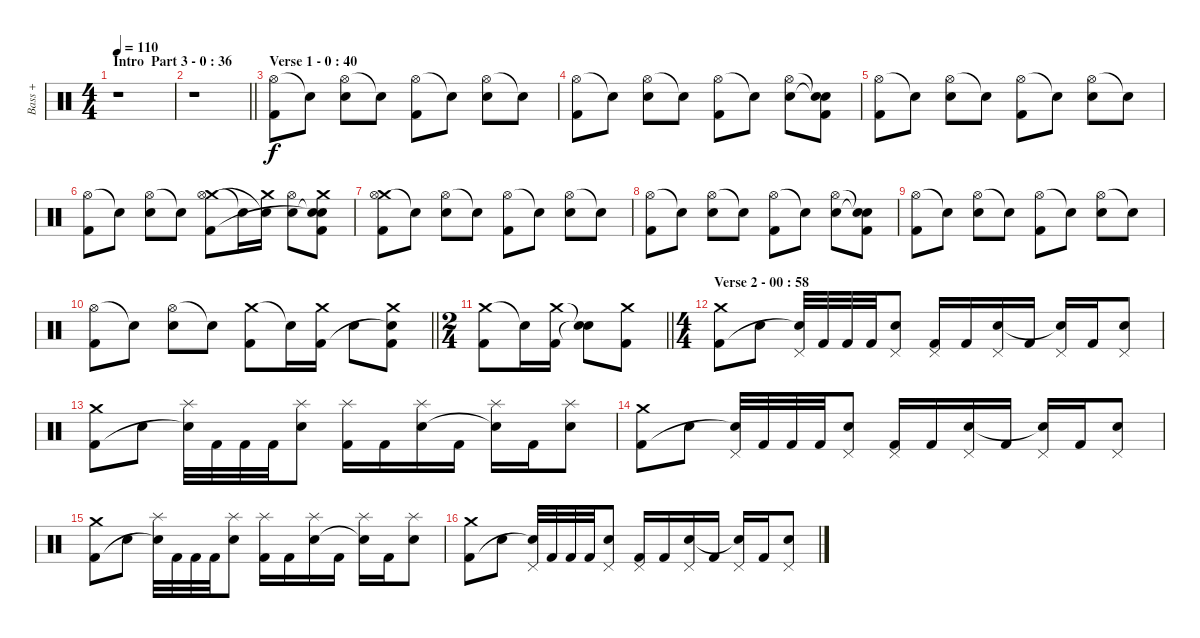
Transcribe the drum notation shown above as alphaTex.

\track ("  Bass +" "  Bass +") {instrument percussion}
\staff {score}
\articulation defaults
\ts (4 4)
\section ("" "Intro  Part 3 - 0 : 36")
\tempo 110
\clef neutral
\ks c
r.1{dy f} |
\barLineRight lightlight
r.1 |
\section ("" "Verse 1 - 0 : 40")
("Hi-Hat (open)" "Kick (hit) 2").8 "Snare (hit)"{t}.8 ("Hi-Hat (open)" "Snare (hit) 2").8 "Snare (hit)"{t}.8 ("Hi-Hat (open)" "Kick (hit) 2").8 "Snare (hit)"{t}.8 ("Hi-Hat (open)" "Snare (hit) 2").8 "Snare (hit)"{t}.8 |
("Hi-Hat (open)" "Kick (hit) 2").8 "Snare (hit)"{t}.8 ("Hi-Hat (open)" "Snare (hit) 2").8 "Snare (hit)"{t}.8 ("Hi-Hat (open)" "Kick (hit) 2").8 "Snare (hit)"{t}.8 ("Hi-Hat (open)" "Snare (hit) 2").8 ("Snare (hit)"{t} "Snare (hit)"{t} "Kick (hit) 2").8 |
("Hi-Hat (open)" "Kick (hit) 2").8 "Snare (hit)"{t}.8 ("Hi-Hat (open)" "Snare (hit) 2").8 "Snare (hit)"{t}.8 ("Hi-Hat (open)" "Kick (hit) 2").8 "Snare (hit)"{t}.8 ("Hi-Hat (open)" "Snare (hit) 2").8 "Snare (hit)"{t}.8 |
("Hi-Hat (open)" "Kick (hit) 2").8 "Snare (hit)"{t}.8 ("Hi-Hat (open)" "Snare (hit) 2").8 "Snare (hit)"{t}.8 ("Crash medium (hit)" "Hi-Hat (open)" "Kick (hit) 2").8 "Snare (hit)"{t}.16 ("Crash medium (hit)" "Snare (hit)"{t}).16 ("Hi-Hat (open)" "Snare (hit) 2").8 ("Crash medium (hit)" "Snare (hit)"{t} "Snare (hit)"{t} "Kick (hit) 2").8 |
("Crash medium (hit)" "Hi-Hat (open)" "Kick (hit) 2").8 "Snare (hit)"{t}.8 ("Hi-Hat (open)" "Snare (hit) 2").8 "Snare (hit)"{t}.8 ("Hi-Hat (open)" "Kick (hit) 2").8 "Snare (hit)"{t}.8 ("Hi-Hat (open)" "Snare (hit) 2").8 "Snare (hit)"{t}.8 |
("Hi-Hat (open)" "Kick (hit) 2").8 "Snare (hit)"{t}.8 ("Hi-Hat (open)" "Snare (hit) 2").8 "Snare (hit)"{t}.8 ("Hi-Hat (open)" "Kick (hit) 2").8 "Snare (hit)"{t}.8 ("Hi-Hat (open)" "Snare (hit) 2").8 ("Snare (hit)"{t} "Snare (hit)"{t} "Kick (hit) 2").8 |
("Hi-Hat (open)" "Kick (hit) 2").8 "Snare (hit)"{t}.8 ("Hi-Hat (open)" "Snare (hit) 2").8 "Snare (hit)"{t}.8 ("Hi-Hat (open)" "Kick (hit) 2").8 "Snare (hit)"{t}.8 ("Hi-Hat (open)" "Snare (hit) 2").8 "Snare (hit)"{t}.8 |
\barLineRight lightlight
("Hi-Hat (open)" "Kick (hit) 2").8 "Snare (hit)"{t}.8 ("Hi-Hat (open)" "Snare (hit) 2").8 "Snare (hit)"{t}.8 ("Crash medium (hit)" "Kick (hit) 2").8 "Snare (hit)"{t}.16 ("Crash medium (hit)" "Kick (hit) 2").16 "Snare (hit) 2".8 ("Crash medium (hit)" "Snare (hit)"{t} "Kick (hit) 2").8 |
\ts (2 4)
\barLineRight lightlight
("Crash medium (hit)" "Kick (hit) 2").8 "Snare (hit)"{t}.16 ("Crash medium (hit)" "Kick (hit) 2").16 ("Snare (hit)"{t} "Snare (hit)"{t}).8 ("Crash medium (hit)" "Kick (hit) 2").8 |
\ts (4 4)
\section ("" "Verse 2 - 00 : 58")
("Crash medium (hit)" "Kick (hit) 2").8 "Snare (hit) 2".8 ("Pedal Hi-Hat (hit)" "Snare (hit)"{t}).32 "Kick (hit) 2".32 "Kick (hit) 2".32 "Kick (hit) 2".32 ("Pedal Hi-Hat (hit)" "Snare (hit) 2").8 ("Pedal Hi-Hat (hit)" "Kick (hit) 2").16 "Kick (hit) 2".16 ("Pedal Hi-Hat (hit)" "Snare (hit) 2").16 "Kick (hit) 2".16 ("Pedal Hi-Hat (hit)" "Snare (hit)"{t}).16 "Kick (hit) 2".16 ("Pedal Hi-Hat (hit)" "Snare (hit) 2").8 |
("Crash medium (hit)" "Kick (hit) 2").8 "Snare (hit) 2".8 ("Splash (hit)" "Snare (hit)"{t}).32 "Kick (hit) 2".32 "Kick (hit) 2".32 "Kick (hit) 2".32 ("Splash (hit)" "Snare (hit) 2").8 ("Splash (hit)" "Kick (hit) 2").16 "Kick (hit) 2".16 ("Splash (hit)" "Snare (hit) 2").16 "Kick (hit) 2".16 ("Splash (hit)" "Snare (hit)"{t}).16 "Kick (hit) 2".16 ("Splash (hit)" "Snare (hit) 2").8 |
("Crash medium (hit)" "Kick (hit) 2").8 "Snare (hit) 2".8 ("Pedal Hi-Hat (hit)" "Snare (hit)"{t}).32 "Kick (hit) 2".32 "Kick (hit) 2".32 "Kick (hit) 2".32 ("Pedal Hi-Hat (hit)" "Snare (hit) 2").8 ("Pedal Hi-Hat (hit)" "Kick (hit) 2").16 "Kick (hit) 2".16 ("Pedal Hi-Hat (hit)" "Snare (hit) 2").16 "Kick (hit) 2".16 ("Pedal Hi-Hat (hit)" "Snare (hit)"{t}).16 "Kick (hit) 2".16 ("Pedal Hi-Hat (hit)" "Snare (hit) 2").8 |
("Crash medium (hit)" "Kick (hit) 2").8 "Snare (hit) 2".8 ("Splash (hit)" "Snare (hit)"{t}).32 "Kick (hit) 2".32 "Kick (hit) 2".32 "Kick (hit) 2".32 ("Splash (hit)" "Snare (hit) 2").8 ("Splash (hit)" "Kick (hit) 2").16 "Kick (hit) 2".16 ("Splash (hit)" "Snare (hit) 2").16 "Kick (hit) 2".16 ("Splash (hit)" "Snare (hit)"{t}).16 "Kick (hit) 2".16 ("Splash (hit)" "Snare (hit) 2").8 |
("Crash medium (hit)" "Kick (hit) 2").8 "Snare (hit) 2".8 ("Pedal Hi-Hat (hit)" "Snare (hit)"{t}).32 "Kick (hit) 2".32 "Kick (hit) 2".32 "Kick (hit) 2".32 ("Pedal Hi-Hat (hit)" "Snare (hit) 2").8 ("Pedal Hi-Hat (hit)" "Kick (hit) 2").16 "Kick (hit) 2".16 ("Pedal Hi-Hat (hit)" "Snare (hit) 2").16 "Kick (hit) 2".16 ("Pedal Hi-Hat (hit)" "Snare (hit)"{t}).16 "Kick (hit) 2".16 ("Pedal Hi-Hat (hit)" "Snare (hit) 2").8
